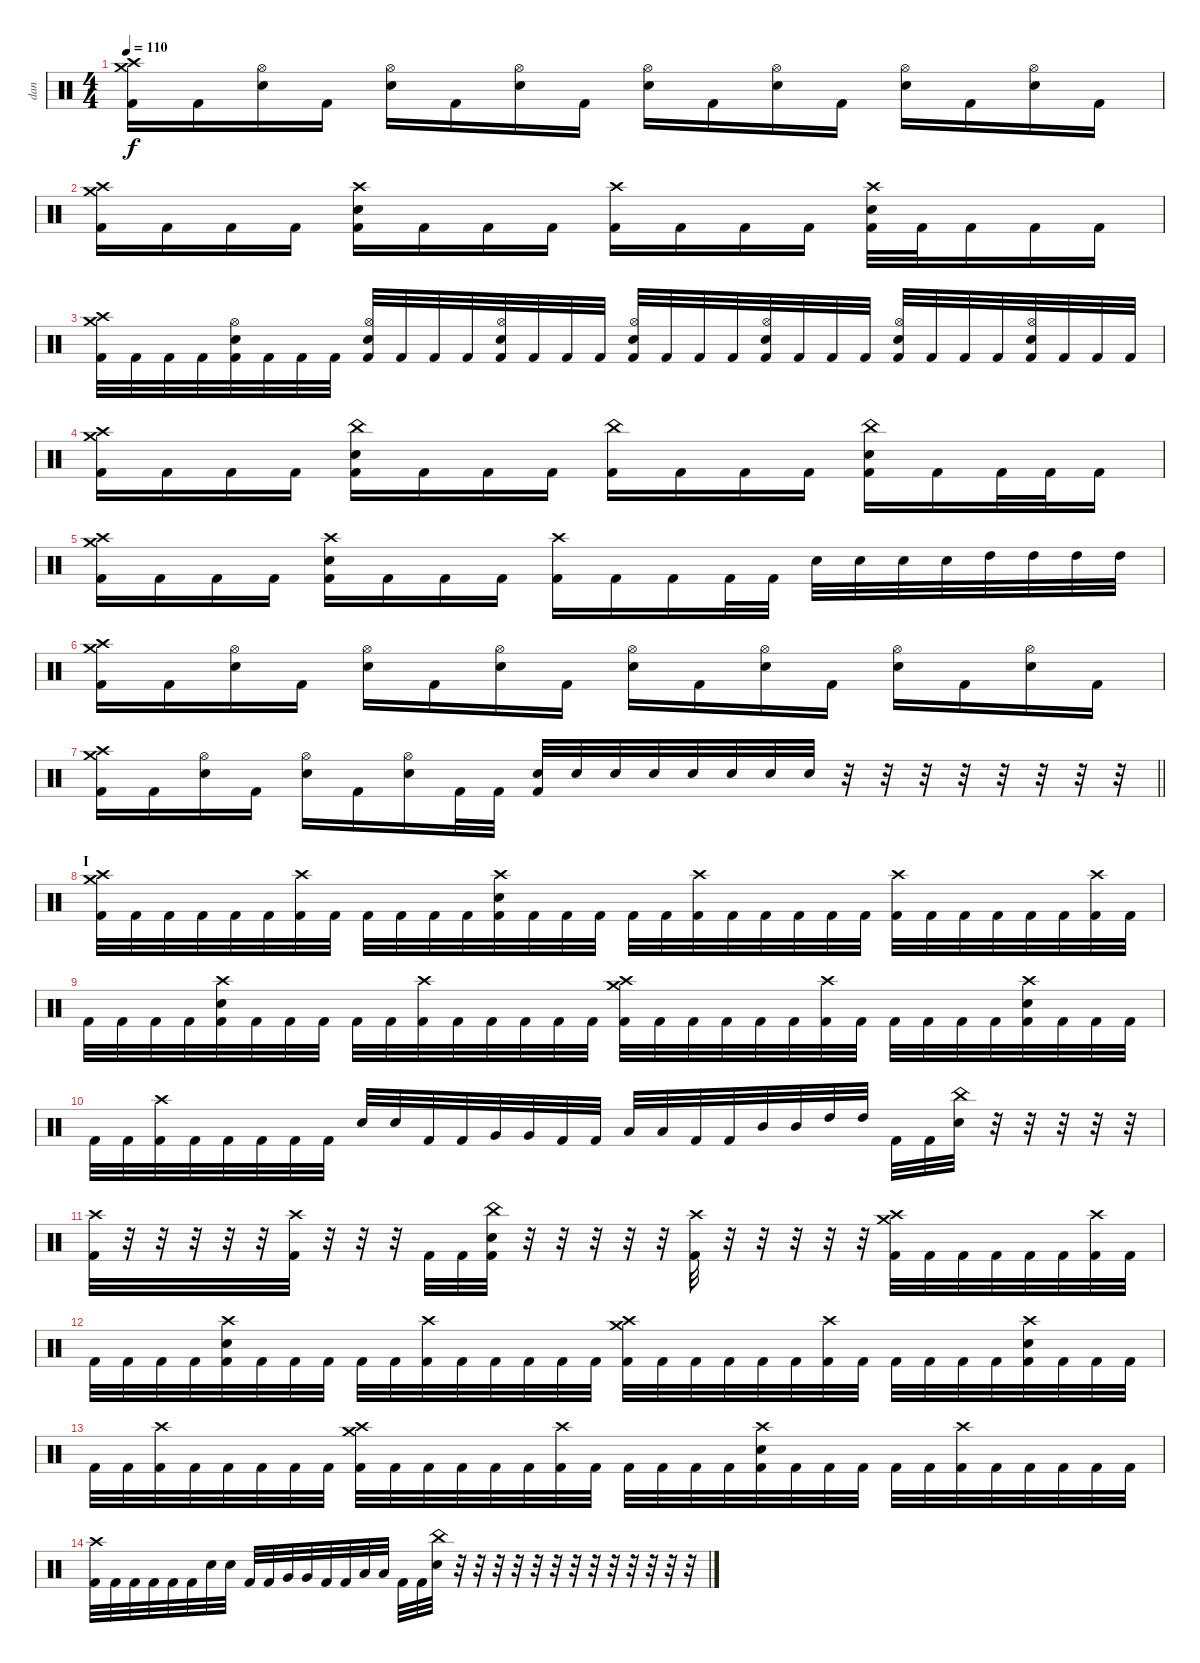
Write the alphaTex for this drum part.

\track ("dan" "dan") {instrument percussion}
\staff {score}
\articulation defaults
\ts (4 4)
\tempo 110
\clef neutral
\ks c
("Crash high (hit)" "Crash medium (hit)" "Kick (hit) 2").16{dy f} "Kick (hit) 2".16 ("Hi-Hat (open)" "Electric Snare (hit)").16 "Kick (hit) 2".16 ("Hi-Hat (open)" "Electric Snare (hit)").16 "Kick (hit) 2".16 ("Hi-Hat (open)" "Electric Snare (hit)").16 "Kick (hit) 2".16 ("Hi-Hat (open)" "Electric Snare (hit)").16 "Kick (hit) 2".16 ("Hi-Hat (open)" "Electric Snare (hit)").16 "Kick (hit) 2".16 ("Hi-Hat (open)" "Electric Snare (hit)").16 "Kick (hit) 2".16 ("Hi-Hat (open)" "Electric Snare (hit)").16 "Kick (hit) 2".16 |
("Crash high (hit)" "Crash medium (hit)" "Kick (hit) 2").16 "Kick (hit) 2".16 "Kick (hit) 2".16 "Kick (hit) 2".16 ("Crash high (hit)" "Electric Snare (hit)" "Kick (hit) 2").16 "Kick (hit) 2".16 "Kick (hit) 2".16 "Kick (hit) 2".16 ("Crash high (hit)" "Kick (hit) 2").16 "Kick (hit) 2".16 "Kick (hit) 2".16 "Kick (hit) 2".16 ("Crash high (hit)" "Electric Snare (hit)" "Kick (hit) 2").32 "Kick (hit) 2".32 "Kick (hit) 2".16 "Kick (hit) 2".16 "Kick (hit) 2".16 |
("Crash high (hit)" "Crash medium (hit)" "Kick (hit) 2").32 "Kick (hit) 2".32 "Kick (hit) 2".32 "Kick (hit) 2".32 ("Hi-Hat (open)" "Electric Snare (hit)" "Kick (hit) 2").32 "Kick (hit) 2".32 "Kick (hit) 2".32 "Kick (hit) 2".32 ("Hi-Hat (open)" "Electric Snare (hit)" "Kick (hit) 2").32 "Kick (hit) 2".32 "Kick (hit) 2".32 "Kick (hit) 2".32 ("Hi-Hat (open)" "Electric Snare (hit)" "Kick (hit) 2").32 "Kick (hit) 2".32 "Kick (hit) 2".32 "Kick (hit) 2".32 ("Hi-Hat (open)" "Electric Snare (hit)" "Kick (hit) 2").32 "Kick (hit) 2".32 "Kick (hit) 2".32 "Kick (hit) 2".32 ("Hi-Hat (open)" "Electric Snare (hit)" "Kick (hit) 2").32 "Kick (hit) 2".32 "Kick (hit) 2".32 "Kick (hit) 2".32 ("Hi-Hat (open)" "Electric Snare (hit)" "Kick (hit) 2").32 "Kick (hit) 2".32 "Kick (hit) 2".32 "Kick (hit) 2".32 ("Hi-Hat (open)" "Electric Snare (hit)" "Kick (hit) 2").32 "Kick (hit) 2".32 "Kick (hit) 2".32 "Kick (hit) 2".32 |
("Crash high (hit)" "Crash medium (hit)" "Kick (hit) 2").16 "Kick (hit) 2".16 "Kick (hit) 2".16 "Kick (hit) 2".16 ("China (hit)" "Electric Snare (hit)" "Kick (hit) 2").16 "Kick (hit) 2".16 "Kick (hit) 2".16 "Kick (hit) 2".16 ("China (hit)" "Kick (hit) 2").16 "Kick (hit) 2".16 "Kick (hit) 2".16 "Kick (hit) 2".16 ("China (hit)" "Electric Snare (hit)" "Kick (hit) 2").16 "Kick (hit) 2".16 "Kick (hit) 2".32 "Kick (hit) 2".32 "Kick (hit) 2".16 |
("Crash high (hit)" "Crash medium (hit)" "Kick (hit) 2").16 "Kick (hit) 2".16 "Kick (hit) 2".16 "Kick (hit) 2".16 ("Crash high (hit)" "Electric Snare (hit)" "Kick (hit) 2").16 "Kick (hit) 2".16 "Kick (hit) 2".16 "Kick (hit) 2".16 ("Crash high (hit)" "Kick (hit) 2").16 "Kick (hit) 2".16 "Kick (hit) 2".16 "Kick (hit) 2".32 "Kick (hit) 2".32 "Electric Snare (hit)".32 "Electric Snare (hit)".32 "Electric Snare (hit)".32 "Electric Snare (hit)".32 "High Tom (hit)".32 "High Tom (hit)".32 "High Tom (hit)".32 "High Tom (hit)".32 |
("Crash high (hit)" "Crash medium (hit)" "Kick (hit) 2").16 "Kick (hit) 2".16 ("Hi-Hat (open)" "Electric Snare (hit)").16 "Kick (hit) 2".16 ("Hi-Hat (open)" "Electric Snare (hit)").16 "Kick (hit) 2".16 ("Hi-Hat (open)" "Electric Snare (hit)").16 "Kick (hit) 2".16 ("Hi-Hat (open)" "Electric Snare (hit)").16 "Kick (hit) 2".16 ("Hi-Hat (open)" "Electric Snare (hit)").16 "Kick (hit) 2".16 ("Hi-Hat (open)" "Electric Snare (hit)").16 "Kick (hit) 2".16 ("Hi-Hat (open)" "Electric Snare (hit)").16 "Kick (hit) 2".16 |
\barLineRight lightlight
("Crash high (hit)" "Crash medium (hit)" "Kick (hit) 2").16 "Kick (hit) 2".16 ("Hi-Hat (open)" "Electric Snare (hit)").16 "Kick (hit) 2".16 ("Hi-Hat (open)" "Electric Snare (hit)").16 "Kick (hit) 2".16 ("Hi-Hat (open)" "Electric Snare (hit)").16 "Kick (hit) 2".32 "Kick (hit) 2".32 ("Electric Snare (hit)" "Kick (hit) 2").32 "Electric Snare (hit)".32 "Electric Snare (hit)".32 "Electric Snare (hit)".32 "Electric Snare (hit)".32 "Electric Snare (hit)".32 "Electric Snare (hit)".32 "Electric Snare (hit)".32 r.32 r.32 r.32 r.32 r.32 r.32 r.32 r.32 |
\section ("" "I")
("Crash high (hit)" "Crash medium (hit)" "Kick (hit) 2").32 "Kick (hit) 2".32 "Kick (hit) 2".32 "Kick (hit) 2".32 "Kick (hit) 2".32 "Kick (hit) 2".32 ("Crash high (hit)" "Kick (hit) 2").32 "Kick (hit) 2".32 "Kick (hit) 2".32 "Kick (hit) 2".32 "Kick (hit) 2".32 "Kick (hit) 2".32 ("Crash high (hit)" "Electric Snare (hit)" "Kick (hit) 2").32 "Kick (hit) 2".32 "Kick (hit) 2".32 "Kick (hit) 2".32 "Kick (hit) 2".32 "Kick (hit) 2".32 ("Crash high (hit)" "Kick (hit) 2").32 "Kick (hit) 2".32 "Kick (hit) 2".32 "Kick (hit) 2".32 "Kick (hit) 2".32 "Kick (hit) 2".32 ("Crash high (hit)" "Kick (hit) 2").32 "Kick (hit) 2".32 "Kick (hit) 2".32 "Kick (hit) 2".32 "Kick (hit) 2".32 "Kick (hit) 2".32 ("Crash high (hit)" "Kick (hit) 2").32 "Kick (hit) 2".32 |
"Kick (hit) 2".32 "Kick (hit) 2".32 "Kick (hit) 2".32 "Kick (hit) 2".32 ("Crash high (hit)" "Electric Snare (hit)" "Kick (hit) 2").32 "Kick (hit) 2".32 "Kick (hit) 2".32 "Kick (hit) 2".32 "Kick (hit) 2".32 "Kick (hit) 2".32 ("Crash high (hit)" "Kick (hit) 2").32 "Kick (hit) 2".32 "Kick (hit) 2".32 "Kick (hit) 2".32 "Kick (hit) 2".32 "Kick (hit) 2".32 ("Crash high (hit)" "Crash medium (hit)" "Kick (hit) 2").32 "Kick (hit) 2".32 "Kick (hit) 2".32 "Kick (hit) 2".32 "Kick (hit) 2".32 "Kick (hit) 2".32 ("Crash high (hit)" "Kick (hit) 2").32 "Kick (hit) 2".32 "Kick (hit) 2".32 "Kick (hit) 2".32 "Kick (hit) 2".32 "Kick (hit) 2".32 ("Crash high (hit)" "Electric Snare (hit)" "Kick (hit) 2").32 "Kick (hit) 2".32 "Kick (hit) 2".32 "Kick (hit) 2".32 |
"Kick (hit) 2".32 "Kick (hit) 2".32 ("Crash high (hit)" "Kick (hit) 2").32 "Kick (hit) 2".32 "Kick (hit) 2".32 "Kick (hit) 2".32 "Kick (hit) 2".32 "Kick (hit) 2".32 "Electric Snare (hit)".32 "Electric Snare (hit)".32 "Kick (hit) 2".32 "Kick (hit) 2".32 "Very Low Tom (hit)".32 "Very Low Tom (hit)".32 "Kick (hit) 2".32 "Kick (hit) 2".32 "Low Tom (hit)".32 "Low Tom (hit)".32 "Kick (hit) 2".32 "Kick (hit) 2".32 "Mid Tom (hit)".32 "Mid Tom (hit)".32 "High Tom (hit)".32 "High Tom (hit)".32 "Kick (hit) 2".32 "Kick (hit) 2".32 ("China (hit)" "Electric Snare (hit)").32 r.32 r.32 r.32 r.32 r.32 |
("Crash high (hit)" "Kick (hit) 2").32 r.32 r.32 r.32 r.32 r.32 ("Crash high (hit)" "Kick (hit) 2").32 r.32 r.32 r.32 "Kick (hit) 2".32 "Kick (hit) 2".32 ("China (hit)" "Electric Snare (hit)" "Kick (hit) 2").32 r.32 r.32 r.32 r.32 r.32 ("Crash high (hit)" "Kick (hit) 2").32 r.32 r.32 r.32 r.32 r.32 ("Crash medium (hit)" "Crash high (hit)" "Kick (hit) 2").32 "Kick (hit) 2".32 "Kick (hit) 2".32 "Kick (hit) 2".32 "Kick (hit) 2".32 "Kick (hit) 2".32 ("Crash high (hit)" "Kick (hit) 2").32 "Kick (hit) 2".32 |
"Kick (hit) 2".32 "Kick (hit) 2".32 "Kick (hit) 2".32 "Kick (hit) 2".32 ("Crash high (hit)" "Electric Snare (hit)" "Kick (hit) 2").32 "Kick (hit) 2".32 "Kick (hit) 2".32 "Kick (hit) 2".32 "Kick (hit) 2".32 "Kick (hit) 2".32 ("Crash high (hit)" "Kick (hit) 2").32 "Kick (hit) 2".32 "Kick (hit) 2".32 "Kick (hit) 2".32 "Kick (hit) 2".32 "Kick (hit) 2".32 ("Crash high (hit)" "Crash medium (hit)" "Kick (hit) 2").32 "Kick (hit) 2".32 "Kick (hit) 2".32 "Kick (hit) 2".32 "Kick (hit) 2".32 "Kick (hit) 2".32 ("Crash high (hit)" "Kick (hit) 2").32 "Kick (hit) 2".32 "Kick (hit) 2".32 "Kick (hit) 2".32 "Kick (hit) 2".32 "Kick (hit) 2".32 ("Crash high (hit)" "Electric Snare (hit)" "Kick (hit) 2").32 "Kick (hit) 2".32 "Kick (hit) 2".32 "Kick (hit) 2".32 |
"Kick (hit) 2".32 "Kick (hit) 2".32 ("Crash high (hit)" "Kick (hit) 2").32 "Kick (hit) 2".32 "Kick (hit) 2".32 "Kick (hit) 2".32 "Kick (hit) 2".32 "Kick (hit) 2".32 ("Crash high (hit)" "Crash medium (hit)" "Kick (hit) 2").32 "Kick (hit) 2".32 "Kick (hit) 2".32 "Kick (hit) 2".32 "Kick (hit) 2".32 "Kick (hit) 2".32 ("Crash high (hit)" "Kick (hit) 2").32 "Kick (hit) 2".32 "Kick (hit) 2".32 "Kick (hit) 2".32 "Kick (hit) 2".32 "Kick (hit) 2".32 ("Crash high (hit)" "Electric Snare (hit)" "Kick (hit) 2").32 "Kick (hit) 2".32 "Kick (hit) 2".32 "Kick (hit) 2".32 "Kick (hit) 2".32 "Kick (hit) 2".32 ("Crash high (hit)" "Kick (hit) 2").32 "Kick (hit) 2".32 "Kick (hit) 2".32 "Kick (hit) 2".32 "Kick (hit) 2".32 "Kick (hit) 2".32 |
("Crash high (hit)" "Kick (hit) 2").32 "Kick (hit) 2".32 "Kick (hit) 2".32 "Kick (hit) 2".32 "Kick (hit) 2".32 "Kick (hit) 2".32 "Electric Snare (hit)".32 "Electric Snare (hit)".32 "Kick (hit) 2".32 "Kick (hit) 2".32 "Very Low Tom (hit)".32 "Very Low Tom (hit)".32 "Kick (hit) 2".32 "Kick (hit) 2".32 "Low Tom (hit)".32 "Low Tom (hit)".32 "Kick (hit) 2".32 "Kick (hit) 2".32 ("China (hit)" "Electric Snare (hit)").32 r.32 r.32 r.32 r.32 r.32 r.32 r.32 r.32 r.32 r.32 r.32 r.32 r.32
